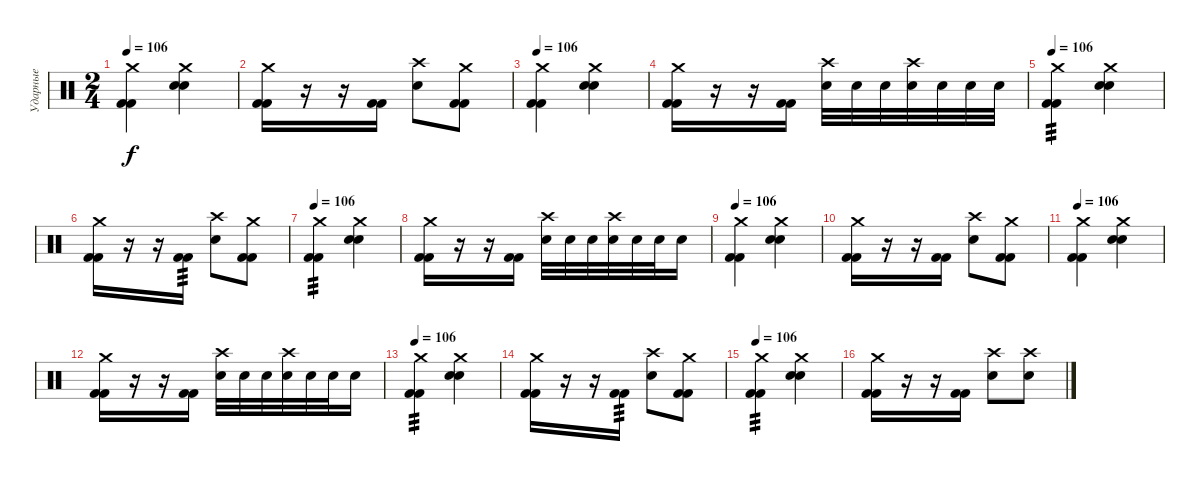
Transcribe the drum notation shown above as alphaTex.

\track ("Ударные" "Ударные") {instrument percussion}
\staff {score}
\articulation defaults
\ts (2 4)
\tempo 106
\clef neutral
\ks c
("Crash medium (hit)" "Kick (hit) 2" "Kick (hit) 2").4{dy f} ("Crash medium (hit)" "Electric Snare (hit)" "Electric Snare (hit)").4 |
("Crash medium (hit)" "Kick (hit) 2" "Kick (hit) 2").16 r.16 r.16 ("Kick (hit) 2" "Kick (hit) 2").16 ("Crash high (hit)" "Electric Snare (hit)").8 ("Crash medium (hit)" "Kick (hit) 2" "Kick (hit) 2").8 |
\tempo 106
("Crash medium (hit)" "Kick (hit) 2" "Kick (hit) 2").4 ("Crash medium (hit)" "Electric Snare (hit)" "Electric Snare (hit)").4 |
("Crash medium (hit)" "Kick (hit) 2" "Kick (hit) 2").16 r.16 r.16 ("Kick (hit) 2" "Kick (hit) 2").16 ("Crash high (hit)" "Electric Snare (hit)").32 "Electric Snare (hit)".32 "Electric Snare (hit)".32 ("Crash high (hit)" "Electric Snare (hit)").32 "Electric Snare (hit)".32 "Electric Snare (hit)".32 "Electric Snare (hit)".32 |
\tempo 106
("Crash medium (hit)" "Kick (hit) 2" "Kick (hit) 2").4{tp 3} ("Crash medium (hit)" "Electric Snare (hit)" "Electric Snare (hit)").4 |
("Crash medium (hit)" "Kick (hit) 2" "Kick (hit) 2").16 r.16 r.16 ("Kick (hit) 2" "Kick (hit) 2").16{tp 3} ("Crash high (hit)" "Electric Snare (hit)").8 ("Crash medium (hit)" "Kick (hit) 2" "Kick (hit) 2").8 |
\tempo 106
("Crash medium (hit)" "Kick (hit) 2" "Kick (hit) 2").4{tp 3} ("Crash medium (hit)" "Electric Snare (hit)" "Electric Snare (hit)").4 |
("Crash medium (hit)" "Kick (hit) 2" "Kick (hit) 2").16 r.16 r.16 ("Kick (hit) 2" "Kick (hit) 2").16 ("Crash high (hit)" "Electric Snare (hit)").32 "Electric Snare (hit)".32 "Electric Snare (hit)".32 ("Crash high (hit)" "Electric Snare (hit)").32 "Electric Snare (hit)".32 "Electric Snare (hit)".32 "Electric Snare (hit)".16 |
\tempo 106
("Crash medium (hit)" "Kick (hit) 2" "Kick (hit) 2").4 ("Crash medium (hit)" "Electric Snare (hit)" "Electric Snare (hit)").4 |
("Crash medium (hit)" "Kick (hit) 2" "Kick (hit) 2").16 r.16 r.16 ("Kick (hit) 2" "Kick (hit) 2").16 ("Crash high (hit)" "Electric Snare (hit)").8 ("Crash medium (hit)" "Kick (hit) 2" "Kick (hit) 2").8 |
\tempo 106
("Crash medium (hit)" "Kick (hit) 2" "Kick (hit) 2").4 ("Crash medium (hit)" "Electric Snare (hit)" "Electric Snare (hit)").4 |
("Crash medium (hit)" "Kick (hit) 2" "Kick (hit) 2").16 r.16 r.16 ("Kick (hit) 2" "Kick (hit) 2").16 ("Crash high (hit)" "Electric Snare (hit)").32 "Electric Snare (hit)".32 "Electric Snare (hit)".32 ("Crash high (hit)" "Electric Snare (hit)").32 "Electric Snare (hit)".32 "Electric Snare (hit)".32 "Electric Snare (hit)".16 |
\tempo 106
("Crash medium (hit)" "Kick (hit) 2" "Kick (hit) 2").4{tp 3} ("Crash medium (hit)" "Electric Snare (hit)" "Electric Snare (hit)").4 |
("Crash medium (hit)" "Kick (hit) 2" "Kick (hit) 2").16 r.16 r.16 ("Kick (hit) 2" "Kick (hit) 2").16{tp 3} ("Crash high (hit)" "Electric Snare (hit)").8 ("Crash medium (hit)" "Kick (hit) 2" "Kick (hit) 2").8 |
\tempo 106
("Crash medium (hit)" "Kick (hit) 2" "Kick (hit) 2").4{tp 3} ("Crash medium (hit)" "Electric Snare (hit)" "Electric Snare (hit)").4 |
("Crash medium (hit)" "Kick (hit) 2" "Kick (hit) 2").16 r.16 r.16 ("Kick (hit) 2" "Kick (hit) 2").16 ("Crash high (hit)" "Electric Snare (hit)").8 ("Crash high (hit)" "Electric Snare (hit)").8
